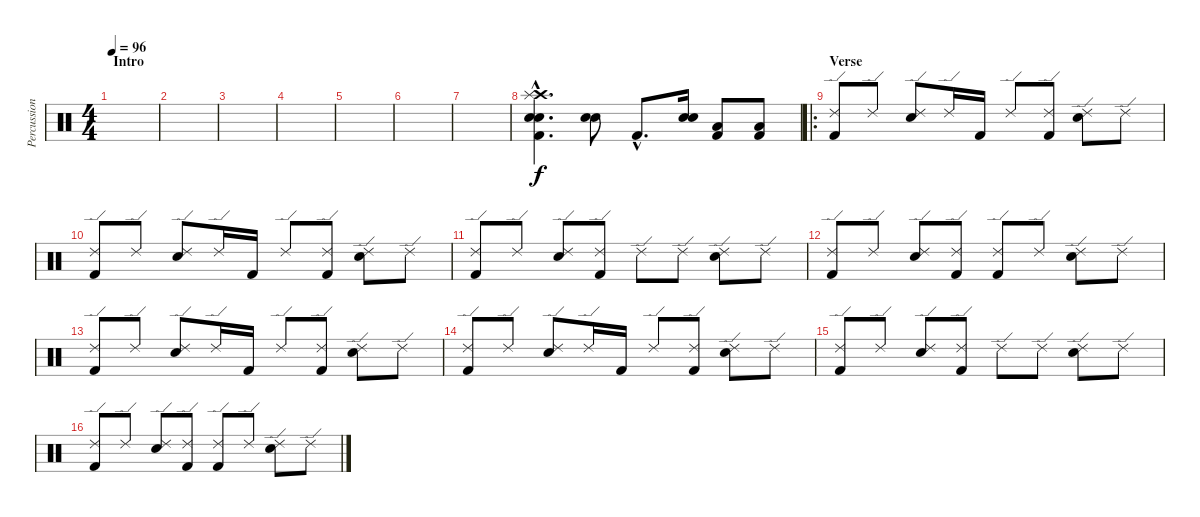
\track ("Percussion" "Percussion") {instrument percussion}
\staff {score}
\articulation defaults
\ts (4 4)
\section ("" "Intro")
\tempo 96
\clef neutral
\ks c
|
|
|
|
|
|
|
("Crash high (hit)"{hac} "Splash (hit)"{hac} "Snare (hit) 2"{hac} "Electric Snare (hit)"{hac} "Kick (hit) 2"{hac}).4{d} ("Snare (hit) 2" "Electric Snare (hit)").8 "Kick (hit) 2"{hac}.8{d} ("Snare (hit) 2" "Electric Snare (hit)").16 ("Low Tom (hit)" "Kick (hit) 2").8 ("Low Floor Tom (hit)" "Kick (hit) 2").8 |
\ro
\section ("" "Verse")
("Ride (edge) 2" "Kick (hit) 2").8 "Ride (edge) 2".8 ("Ride (edge) 2" "Electric Snare (hit)").8 "Ride (edge) 2".16 "Kick (hit) 2".16 "Ride (edge) 2".8 ("Ride (edge) 2" "Kick (hit) 2").8 ("Ride (edge) 2" "Electric Snare (hit)").8 "Ride (edge) 2".8 |
("Ride (edge) 2" "Kick (hit) 2").8 "Ride (edge) 2".8 ("Ride (edge) 2" "Electric Snare (hit)").8 "Ride (edge) 2".16 "Kick (hit) 2".16 "Ride (edge) 2".8 ("Ride (edge) 2" "Kick (hit) 2").8 ("Ride (edge) 2" "Electric Snare (hit)").8 "Ride (edge) 2".8 |
("Ride (edge) 2" "Kick (hit) 2").8 "Ride (edge) 2".8 ("Ride (edge) 2" "Electric Snare (hit)").8 ("Ride (edge) 2" "Kick (hit) 2").8 "Ride (edge) 2".8 "Ride (edge) 2".8 ("Ride (edge) 2" "Electric Snare (hit)").8 "Ride (edge) 2".8 |
("Ride (edge) 2" "Kick (hit) 2").8 "Ride (edge) 2".8 ("Ride (edge) 2" "Electric Snare (hit)").8 ("Ride (edge) 2" "Kick (hit) 2").8 ("Ride (edge) 2" "Kick (hit) 2").8 "Ride (edge) 2".8 ("Ride (edge) 2" "Electric Snare (hit)").8 "Ride (edge) 2".8 |
("Ride (edge) 2" "Kick (hit) 2").8 "Ride (edge) 2".8 ("Ride (edge) 2" "Electric Snare (hit)").8 "Ride (edge) 2".16 "Kick (hit) 2".16 "Ride (edge) 2".8 ("Ride (edge) 2" "Kick (hit) 2").8 ("Ride (edge) 2" "Electric Snare (hit)").8 "Ride (edge) 2".8 |
("Ride (edge) 2" "Kick (hit) 2").8 "Ride (edge) 2".8 ("Ride (edge) 2" "Electric Snare (hit)").8 "Ride (edge) 2".16 "Kick (hit) 2".16 "Ride (edge) 2".8 ("Ride (edge) 2" "Kick (hit) 2").8 ("Ride (edge) 2" "Electric Snare (hit)").8 "Ride (edge) 2".8 |
("Ride (edge) 2" "Kick (hit) 2").8 "Ride (edge) 2".8 ("Ride (edge) 2" "Electric Snare (hit)").8 ("Ride (edge) 2" "Kick (hit) 2").8 "Ride (edge) 2".8 "Ride (edge) 2".8 ("Ride (edge) 2" "Electric Snare (hit)").8 "Ride (edge) 2".8 |
("Ride (edge) 2" "Kick (hit) 2").8 "Ride (edge) 2".8 ("Ride (edge) 2" "Electric Snare (hit)").8 ("Ride (edge) 2" "Kick (hit) 2").8 ("Ride (edge) 2" "Kick (hit) 2").8 "Ride (edge) 2".8 ("Ride (edge) 2" "Electric Snare (hit)").8 "Ride (edge) 2".8
